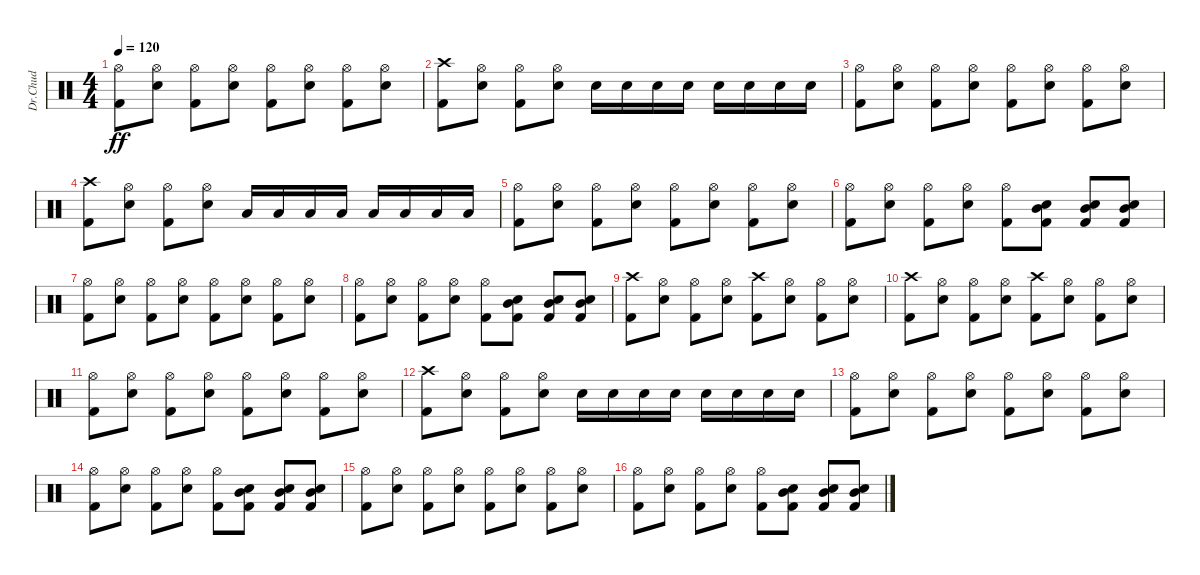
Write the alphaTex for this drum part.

\track ("Dr.Chud" "Dr.Chud") {instrument percussion}
\staff {score}
\articulation defaults
\ts (4 4)
\tempo 120
\clef neutral
\ks c
("Hi-Hat (open)" "Kick (hit) 2").8{dy ff} ("Hi-Hat (open)" "Electric Snare (hit)").8 ("Hi-Hat (open)" "Kick (hit) 2").8 ("Hi-Hat (open)" "Electric Snare (hit)").8 ("Hi-Hat (open)" "Kick (hit) 2").8 ("Hi-Hat (open)" "Electric Snare (hit)").8 ("Hi-Hat (open)" "Kick (hit) 2").8 ("Hi-Hat (open)" "Electric Snare (hit)").8 |
("Crash high (hit)" "Kick (hit) 2").8 ("Hi-Hat (open)" "Electric Snare (hit)").8 ("Hi-Hat (open)" "Kick (hit) 2").8 ("Hi-Hat (open)" "Electric Snare (hit)").8 "Electric Snare (hit)".16 "Electric Snare (hit)".16 "Electric Snare (hit)".16 "Electric Snare (hit)".16 "Electric Snare (hit)".16 "Electric Snare (hit)".16 "Electric Snare (hit)".16 "Electric Snare (hit)".16 |
("Hi-Hat (open)" "Kick (hit) 2").8 ("Hi-Hat (open)" "Electric Snare (hit)").8 ("Hi-Hat (open)" "Kick (hit) 2").8 ("Hi-Hat (open)" "Electric Snare (hit)").8 ("Hi-Hat (open)" "Kick (hit) 2").8 ("Hi-Hat (open)" "Electric Snare (hit)").8 ("Hi-Hat (open)" "Kick (hit) 2").8 ("Hi-Hat (open)" "Electric Snare (hit)").8 |
("Crash high (hit)" "Kick (hit) 2").8 ("Hi-Hat (open)" "Electric Snare (hit)").8 ("Hi-Hat (open)" "Kick (hit) 2").8 ("Hi-Hat (open)" "Electric Snare (hit)").8 "Low Tom (hit)".16 "Low Tom (hit)".16 "Low Tom (hit)".16 "Low Tom (hit)".16 "Low Tom (hit)".16 "Low Tom (hit)".16 "Low Tom (hit)".16 "Low Tom (hit)".16 |
("Hi-Hat (open)" "Kick (hit) 2").8 ("Hi-Hat (open)" "Electric Snare (hit)").8 ("Hi-Hat (open)" "Kick (hit) 2").8 ("Hi-Hat (open)" "Electric Snare (hit)").8 ("Hi-Hat (open)" "Kick (hit) 2").8 ("Hi-Hat (open)" "Electric Snare (hit)").8 ("Hi-Hat (open)" "Kick (hit) 2").8 ("Hi-Hat (open)" "Electric Snare (hit)").8 |
("Hi-Hat (open)" "Kick (hit) 2").8 ("Hi-Hat (open)" "Electric Snare (hit)").8 ("Hi-Hat (open)" "Kick (hit) 2").8 ("Hi-Hat (open)" "Electric Snare (hit)").8 ("Hi-Hat (open)" "Kick (hit) 2").8 ("Mid Tom (hit)" "Electric Snare (hit)" "Kick (hit) 2").8 ("Mid Tom (hit)" "Electric Snare (hit)" "Kick (hit) 2").8 ("Mid Tom (hit)" "Electric Snare (hit)" "Kick (hit) 2").8 |
("Hi-Hat (open)" "Kick (hit) 2").8 ("Hi-Hat (open)" "Electric Snare (hit)").8 ("Hi-Hat (open)" "Kick (hit) 2").8 ("Hi-Hat (open)" "Electric Snare (hit)").8 ("Hi-Hat (open)" "Kick (hit) 2").8 ("Hi-Hat (open)" "Electric Snare (hit)").8 ("Hi-Hat (open)" "Kick (hit) 2").8 ("Hi-Hat (open)" "Electric Snare (hit)").8 |
("Hi-Hat (open)" "Kick (hit) 2").8 ("Hi-Hat (open)" "Electric Snare (hit)").8 ("Hi-Hat (open)" "Kick (hit) 2").8 ("Hi-Hat (open)" "Electric Snare (hit)").8 ("Hi-Hat (open)" "Kick (hit) 2").8 ("Mid Tom (hit)" "Electric Snare (hit)" "Kick (hit) 2").8 ("Mid Tom (hit)" "Electric Snare (hit)" "Kick (hit) 2").8 ("Mid Tom (hit)" "Electric Snare (hit)" "Kick (hit) 2").8 |
("Crash high (hit)" "Kick (hit) 2").8 ("Hi-Hat (open)" "Electric Snare (hit)").8 ("Hi-Hat (open)" "Kick (hit) 2").8 ("Hi-Hat (open)" "Electric Snare (hit)").8 ("Crash high (hit)" "Kick (hit) 2").8 ("Hi-Hat (open)" "Electric Snare (hit)").8 ("Hi-Hat (open)" "Kick (hit) 2").8 ("Hi-Hat (open)" "Electric Snare (hit)").8 |
("Crash high (hit)" "Kick (hit) 2").8 ("Hi-Hat (open)" "Electric Snare (hit)").8 ("Hi-Hat (open)" "Kick (hit) 2").8 ("Hi-Hat (open)" "Electric Snare (hit)").8 ("Crash high (hit)" "Kick (hit) 2").8 ("Hi-Hat (open)" "Electric Snare (hit)").8 ("Hi-Hat (open)" "Kick (hit) 2").8 ("Hi-Hat (open)" "Electric Snare (hit)").8 |
("Hi-Hat (open)" "Kick (hit) 2").8 ("Hi-Hat (open)" "Electric Snare (hit)").8 ("Hi-Hat (open)" "Kick (hit) 2").8 ("Hi-Hat (open)" "Electric Snare (hit)").8 ("Hi-Hat (open)" "Kick (hit) 2").8 ("Hi-Hat (open)" "Electric Snare (hit)").8 ("Hi-Hat (open)" "Kick (hit) 2").8 ("Hi-Hat (open)" "Electric Snare (hit)").8 |
("Crash high (hit)" "Kick (hit) 2").8 ("Hi-Hat (open)" "Electric Snare (hit)").8 ("Hi-Hat (open)" "Kick (hit) 2").8 ("Hi-Hat (open)" "Electric Snare (hit)").8 "Electric Snare (hit)".16 "Electric Snare (hit)".16 "Electric Snare (hit)".16 "Electric Snare (hit)".16 "Electric Snare (hit)".16 "Electric Snare (hit)".16 "Electric Snare (hit)".16 "Electric Snare (hit)".16 |
("Hi-Hat (open)" "Kick (hit) 2").8 ("Hi-Hat (open)" "Electric Snare (hit)").8 ("Hi-Hat (open)" "Kick (hit) 2").8 ("Hi-Hat (open)" "Electric Snare (hit)").8 ("Hi-Hat (open)" "Kick (hit) 2").8 ("Hi-Hat (open)" "Electric Snare (hit)").8 ("Hi-Hat (open)" "Kick (hit) 2").8 ("Hi-Hat (open)" "Electric Snare (hit)").8 |
("Hi-Hat (open)" "Kick (hit) 2").8 ("Hi-Hat (open)" "Electric Snare (hit)").8 ("Hi-Hat (open)" "Kick (hit) 2").8 ("Hi-Hat (open)" "Electric Snare (hit)").8 ("Hi-Hat (open)" "Kick (hit) 2").8 ("Mid Tom (hit)" "Electric Snare (hit)" "Kick (hit) 2").8 ("Mid Tom (hit)" "Electric Snare (hit)" "Kick (hit) 2").8 ("Mid Tom (hit)" "Electric Snare (hit)" "Kick (hit) 2").8 |
("Hi-Hat (open)" "Kick (hit) 2").8 ("Hi-Hat (open)" "Electric Snare (hit)").8 ("Hi-Hat (open)" "Kick (hit) 2").8 ("Hi-Hat (open)" "Electric Snare (hit)").8 ("Hi-Hat (open)" "Kick (hit) 2").8 ("Hi-Hat (open)" "Electric Snare (hit)").8 ("Hi-Hat (open)" "Kick (hit) 2").8 ("Hi-Hat (open)" "Electric Snare (hit)").8 |
("Hi-Hat (open)" "Kick (hit) 2").8 ("Hi-Hat (open)" "Electric Snare (hit)").8 ("Hi-Hat (open)" "Kick (hit) 2").8 ("Hi-Hat (open)" "Electric Snare (hit)").8 ("Hi-Hat (open)" "Kick (hit) 2").8 ("Mid Tom (hit)" "Electric Snare (hit)" "Kick (hit) 2").8 ("Mid Tom (hit)" "Electric Snare (hit)" "Kick (hit) 2").8 ("Mid Tom (hit)" "Electric Snare (hit)" "Kick (hit) 2").8
